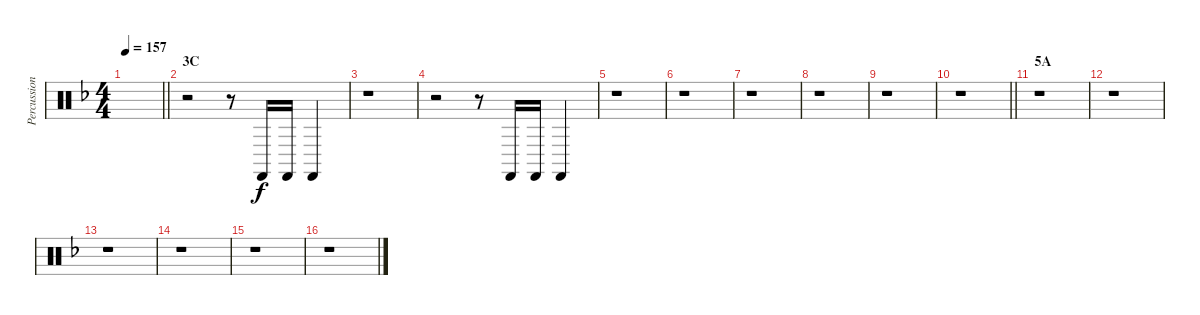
\track ("Percussion" "Percussion") {instrument percussion}
\staff {score}
\articulation defaults
\ts (4 4)
\tempo 157
\clef neutral
\barLineRight lightlight
\ks f
|
\section ("" "3C")
r.2 r.8 "Castanets (hit)".16 "Castanets (hit)".16 "Castanets (hit)".4 |
r.1 |
r.2 r.8 "Castanets (hit)".16 "Castanets (hit)".16 "Castanets (hit)".4 |
r.1 |
r.1 |
r.1 |
r.1 |
r.1 |
\barLineRight lightlight
r.1 |
\section ("" "5A")
r.1 |
r.1 |
r.1 |
r.1 |
r.1 |
r.1
